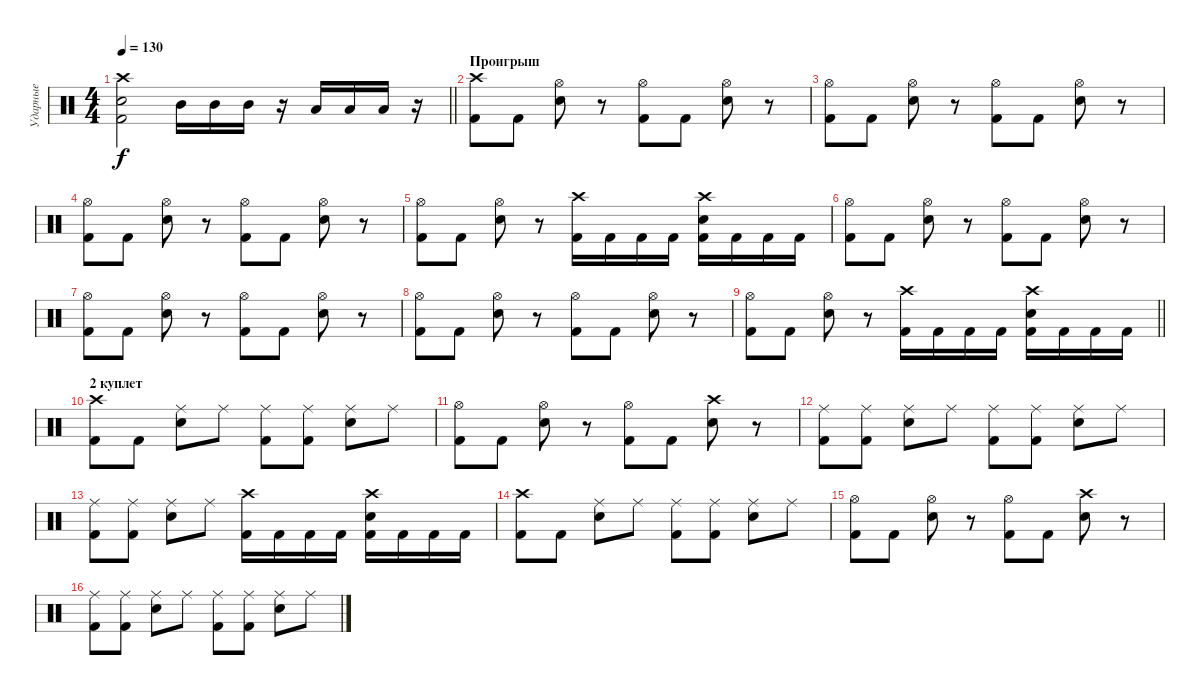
\track ("Ударные" "Ударные") {instrument percussion}
\staff {score}
\articulation defaults
\ts (4 4)
\tempo 130
\clef neutral
\barLineRight lightlight
\ks c
("Crash high (hit)" "Snare (hit) 2" "Kick (hit) 2").2{dy f} "Mid Tom (hit)".16 "Mid Tom (hit)".16 "Mid Tom (hit)".16 r.16 "Low Tom (hit)".16 "Low Tom (hit)".16 "Low Tom (hit)".16 r.16 |
\section ("" "Проигрыш")
("Crash high (hit)" "Kick (hit) 2").8 "Kick (hit) 2".8 ("Hi-Hat (open)" "Snare (hit) 2").8 r.8 ("Hi-Hat (open)" "Kick (hit) 2").8 "Kick (hit) 2".8 ("Hi-Hat (open)" "Snare (hit) 2").8 r.8 |
("Hi-Hat (open)" "Kick (hit) 2").8 "Kick (hit) 2".8 ("Hi-Hat (open)" "Snare (hit) 2").8 r.8 ("Hi-Hat (open)" "Kick (hit) 2").8 "Kick (hit) 2".8 ("Hi-Hat (open)" "Snare (hit) 2").8 r.8 |
("Hi-Hat (open)" "Kick (hit) 2").8 "Kick (hit) 2".8 ("Hi-Hat (open)" "Snare (hit) 2").8 r.8 ("Hi-Hat (open)" "Kick (hit) 2").8 "Kick (hit) 2".8 ("Hi-Hat (open)" "Snare (hit) 2").8 r.8 |
("Hi-Hat (open)" "Kick (hit) 2").8 "Kick (hit) 2".8 ("Hi-Hat (open)" "Snare (hit) 2").8 r.8 ("Crash high (hit)" "Kick (hit) 2").16 "Kick (hit) 2".16 "Kick (hit) 2".16 "Kick (hit) 2".16 ("Crash high (hit)" "Snare (hit) 2" "Kick (hit) 2").16 "Kick (hit) 2".16 "Kick (hit) 2".16 "Kick (hit) 2".16 |
("Hi-Hat (open)" "Kick (hit) 2").8 "Kick (hit) 2".8 ("Hi-Hat (open)" "Snare (hit) 2").8 r.8 ("Hi-Hat (open)" "Kick (hit) 2").8 "Kick (hit) 2".8 ("Hi-Hat (open)" "Snare (hit) 2").8 r.8 |
("Hi-Hat (open)" "Kick (hit) 2").8 "Kick (hit) 2".8 ("Hi-Hat (open)" "Snare (hit) 2").8 r.8 ("Hi-Hat (open)" "Kick (hit) 2").8 "Kick (hit) 2".8 ("Hi-Hat (open)" "Snare (hit) 2").8 r.8 |
("Hi-Hat (open)" "Kick (hit) 2").8 "Kick (hit) 2".8 ("Hi-Hat (open)" "Snare (hit) 2").8 r.8 ("Hi-Hat (open)" "Kick (hit) 2").8 "Kick (hit) 2".8 ("Hi-Hat (open)" "Snare (hit) 2").8 r.8 |
\barLineRight lightlight
("Hi-Hat (open)" "Kick (hit) 2").8 "Kick (hit) 2".8 ("Hi-Hat (open)" "Snare (hit) 2").8 r.8 ("Crash high (hit)" "Kick (hit) 2").16 "Kick (hit) 2".16 "Kick (hit) 2".16 "Kick (hit) 2".16 ("Crash high (hit)" "Snare (hit) 2" "Kick (hit) 2").16 "Kick (hit) 2".16 "Kick (hit) 2".16 "Kick (hit) 2".16 |
\section ("" "2 куплет")
("Crash high (hit)" "Kick (hit) 2").8 "Kick (hit) 2".8 ("Ride (middle)" "Snare (hit) 2").8 "Ride (middle)".8 ("Ride (middle)" "Kick (hit) 2").8 ("Ride (middle)" "Kick (hit) 2").8 ("Ride (middle)" "Snare (hit) 2").8 "Ride (middle)".8 |
("Hi-Hat (open)" "Kick (hit) 2").8 "Kick (hit) 2".8 ("Hi-Hat (open)" "Snare (hit) 2").8 r.8 ("Hi-Hat (open)" "Kick (hit) 2").8 "Kick (hit) 2".8 ("Crash high (hit)" "Snare (hit) 2").8 r.8 |
("Ride (middle)" "Kick (hit) 2").8 ("Ride (middle)" "Kick (hit) 2").8 ("Ride (middle)" "Snare (hit) 2").8 "Ride (middle)".8 ("Ride (middle)" "Kick (hit) 2").8 ("Ride (middle)" "Kick (hit) 2").8 ("Ride (middle)" "Snare (hit) 2").8 "Ride (middle)".8 |
("Ride (middle)" "Kick (hit) 2").8 ("Ride (middle)" "Kick (hit) 2").8 ("Ride (middle)" "Snare (hit) 2").8 "Ride (middle)".8 ("Crash high (hit)" "Kick (hit) 2").16 "Kick (hit) 2".16 "Kick (hit) 2".16 "Kick (hit) 2".16 ("Crash high (hit)" "Snare (hit) 2" "Kick (hit) 2").16 "Kick (hit) 2".16 "Kick (hit) 2".16 "Kick (hit) 2".16 |
("Crash high (hit)" "Kick (hit) 2").8 "Kick (hit) 2".8 ("Ride (middle)" "Snare (hit) 2").8 "Ride (middle)".8 ("Ride (middle)" "Kick (hit) 2").8 ("Ride (middle)" "Kick (hit) 2").8 ("Ride (middle)" "Snare (hit) 2").8 "Ride (middle)".8 |
("Hi-Hat (open)" "Kick (hit) 2").8 "Kick (hit) 2".8 ("Hi-Hat (open)" "Snare (hit) 2").8 r.8 ("Hi-Hat (open)" "Kick (hit) 2").8 "Kick (hit) 2".8 ("Crash high (hit)" "Snare (hit) 2").8 r.8 |
("Ride (middle)" "Kick (hit) 2").8 ("Ride (middle)" "Kick (hit) 2").8 ("Ride (middle)" "Snare (hit) 2").8 "Ride (middle)".8 ("Ride (middle)" "Kick (hit) 2").8 ("Ride (middle)" "Kick (hit) 2").8 ("Ride (middle)" "Snare (hit) 2").8 "Ride (middle)".8
